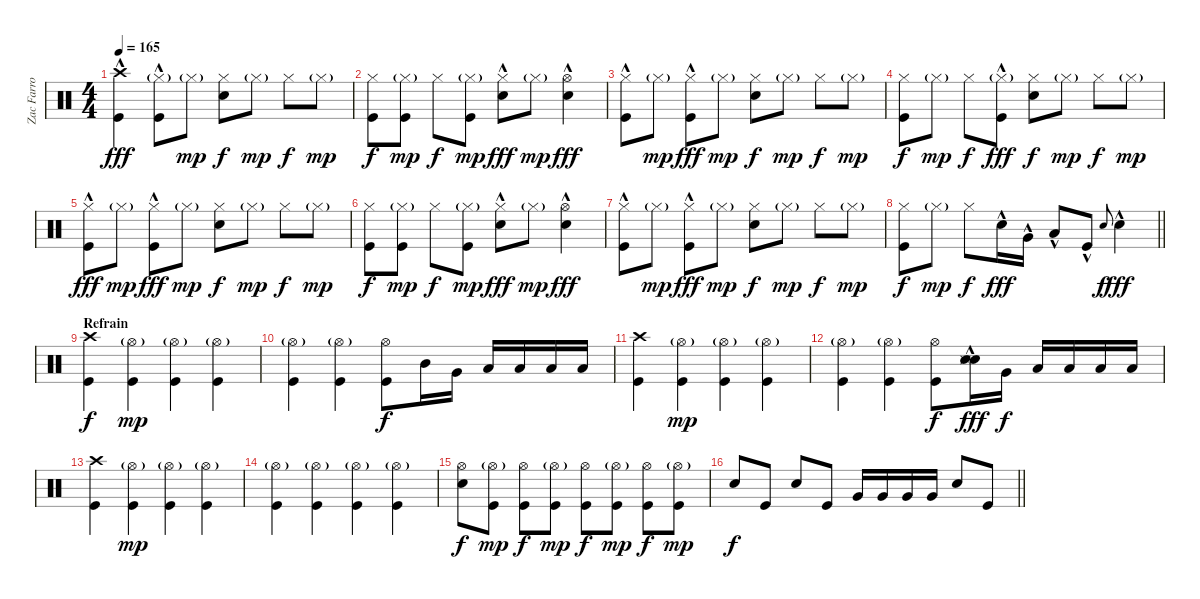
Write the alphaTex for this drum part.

\track ("Zac Farro (Drums)" "Zac Farro ") {instrument percussion}
\staff {score}
\articulation defaults
\ts (4 4)
\tempo 165
\clef neutral
\ks c
("Crash high (hit)"{hac} "Kick (hit)"{hac}).4{dy fff} ("Hi-Hat (closed)"{g} "Kick (hit)"{hac}).8 "Hi-Hat (closed)"{g}.8{dy mp} ("Hi-Hat (closed)" "Electric Snare (hit)").8{dy f} "Hi-Hat (closed)"{g}.8{dy mp} "Hi-Hat (closed)".8{dy f} "Hi-Hat (closed)"{g}.8{dy mp} |
("Hi-Hat (closed)" "Kick (hit)").8{dy f} ("Hi-Hat (closed)"{g} "Kick (hit)").8{dy mp} "Hi-Hat (closed)".8{dy f} ("Hi-Hat (closed)"{g} "Kick (hit)").8{dy mp} ("Hi-Hat (closed)" "Electric Snare (hit)"{hac}).8{dy fff} "Hi-Hat (closed)"{g}.8{dy mp} ("Hi-Hat (open)"{hac} "Electric Snare (hit)"{hac}).4{dy fff} |
("Hi-Hat (closed)" "Kick (hit)"{hac}).8 "Hi-Hat (closed)"{g}.8{dy mp} ("Hi-Hat (closed)" "Kick (hit)"{hac}).8{dy fff} "Hi-Hat (closed)"{g}.8{dy mp} ("Hi-Hat (closed)" "Electric Snare (hit)").8{dy f} "Hi-Hat (closed)"{g}.8{dy mp} "Hi-Hat (closed)".8{dy f} "Hi-Hat (closed)"{g}.8{dy mp} |
("Hi-Hat (closed)" "Kick (hit)").8{dy f} "Hi-Hat (closed)"{g}.8{dy mp} "Hi-Hat (closed)".8{dy f} ("Hi-Hat (closed)"{g} "Kick (hit)"{hac}).8{dy fff} ("Hi-Hat (closed)" "Electric Snare (hit)").8{dy f} "Hi-Hat (closed)"{g}.8{dy mp} "Hi-Hat (closed)".8{dy f} "Hi-Hat (closed)"{g}.8{dy mp} |
("Hi-Hat (closed)" "Kick (hit)"{hac}).8{dy fff} "Hi-Hat (closed)"{g}.8{dy mp} ("Hi-Hat (closed)" "Kick (hit)"{hac}).8{dy fff} "Hi-Hat (closed)"{g}.8{dy mp} ("Hi-Hat (closed)" "Electric Snare (hit)").8{dy f} "Hi-Hat (closed)"{g}.8{dy mp} "Hi-Hat (closed)".8{dy f} "Hi-Hat (closed)"{g}.8{dy mp} |
("Hi-Hat (closed)" "Kick (hit)").8{dy f} ("Hi-Hat (closed)"{g} "Kick (hit)").8{dy mp} "Hi-Hat (closed)".8{dy f} ("Hi-Hat (closed)"{g} "Kick (hit)").8{dy mp} ("Hi-Hat (closed)" "Electric Snare (hit)"{hac}).8{dy fff} "Hi-Hat (closed)"{g}.8{dy mp} ("Hi-Hat (open)"{hac} "Electric Snare (hit)"{hac}).4{dy fff} |
("Hi-Hat (closed)" "Kick (hit)"{hac}).8 "Hi-Hat (closed)"{g}.8{dy mp} ("Hi-Hat (closed)" "Kick (hit)"{hac}).8{dy fff} "Hi-Hat (closed)"{g}.8{dy mp} ("Hi-Hat (closed)" "Electric Snare (hit)").8{dy f} "Hi-Hat (closed)"{g}.8{dy mp} "Hi-Hat (closed)".8{dy f} "Hi-Hat (closed)"{g}.8{dy mp} |
\barLineRight lightlight
("Hi-Hat (closed)" "Kick (hit)").8{dy f} "Hi-Hat (closed)"{g}.8{dy mp} "Hi-Hat (closed)".8{dy f} "Electric Snare (hit)"{hac}.16{dy fff} "Very Low Tom (hit)"{hac}.16 "Low Floor Tom (hit)"{hac}.8 "Kick (hit)"{hac}.8 "Electric Snare (hit)".8{gr onbeat dy f} "Electric Snare (hit)"{hac}.4{dy fff} |
\section ("" "Refrain")
("Crash high (hit)" "Kick (hit)").4{dy f} ("Hi-Hat (open)"{g} "Kick (hit)").4{dy mp} ("Hi-Hat (open)"{g} "Kick (hit)").4 ("Hi-Hat (open)"{g} "Kick (hit)").4 |
("Hi-Hat (open)"{g} "Kick (hit)").4 ("Hi-Hat (open)"{g} "Kick (hit)").4 ("Hi-Hat (open)" "Kick (hit)").8{dy f} "Mid Tom (hit)".16 "Very Low Tom (hit)".16 "Low Floor Tom (hit)".16 "Low Floor Tom (hit)".16 "Low Floor Tom (hit)".16 "Low Floor Tom (hit)".16 |
("Crash high (hit)" "Kick (hit)").4 ("Hi-Hat (open)"{g} "Kick (hit)").4{dy mp} ("Hi-Hat (open)"{g} "Kick (hit)").4 ("Hi-Hat (open)"{g} "Kick (hit)").4 |
("Hi-Hat (open)"{g} "Kick (hit)").4 ("Hi-Hat (open)"{g} "Kick (hit)").4 ("Hi-Hat (open)" "Kick (hit)").8{dy f} ("Snare (hit) 2"{hac} "Snare (side stick) 3"{hac} "Electric Snare (hit)"{hac}).16{dy fff} "Very Low Tom (hit)".16{dy f} "Low Floor Tom (hit)".16 "Low Floor Tom (hit)".16 "Low Floor Tom (hit)".16 "Low Floor Tom (hit)".16 |
("Crash high (hit)" "Kick (hit)").4 ("Hi-Hat (open)"{g} "Kick (hit)").4{dy mp} ("Hi-Hat (open)"{g} "Kick (hit)").4 ("Hi-Hat (open)"{g} "Kick (hit)").4 |
("Hi-Hat (open)"{g} "Kick (hit)").4 ("Hi-Hat (open)"{g} "Kick (hit)").4 ("Hi-Hat (open)"{g} "Kick (hit)").4 ("Hi-Hat (open)"{g} "Kick (hit)").4 |
("Hi-Hat (open)" "Electric Snare (hit)").8{dy f} ("Hi-Hat (open)"{g} "Kick (hit)").8{dy mp} ("Hi-Hat (open)" "Kick (hit)").8{dy f} ("Hi-Hat (open)"{g} "Kick (hit)").8{dy mp} ("Hi-Hat (open)" "Kick (hit)").8{dy f} ("Hi-Hat (open)"{g} "Kick (hit)").8{dy mp} ("Hi-Hat (open)" "Kick (hit)").8{dy f} ("Hi-Hat (open)"{g} "Kick (hit)").8{dy mp} |
\barLineRight lightlight "Electric Snare (hit)".8{dy f} "Kick (hit)".8 "Electric Snare (hit)".8 "Kick (hit)".8 "Very Low Tom (hit)".16 "Very Low Tom (hit)".16 "Very Low Tom (hit)".16 "Very Low Tom (hit)".16 "Electric Snare (hit)".8 "Kick (hit)".8
